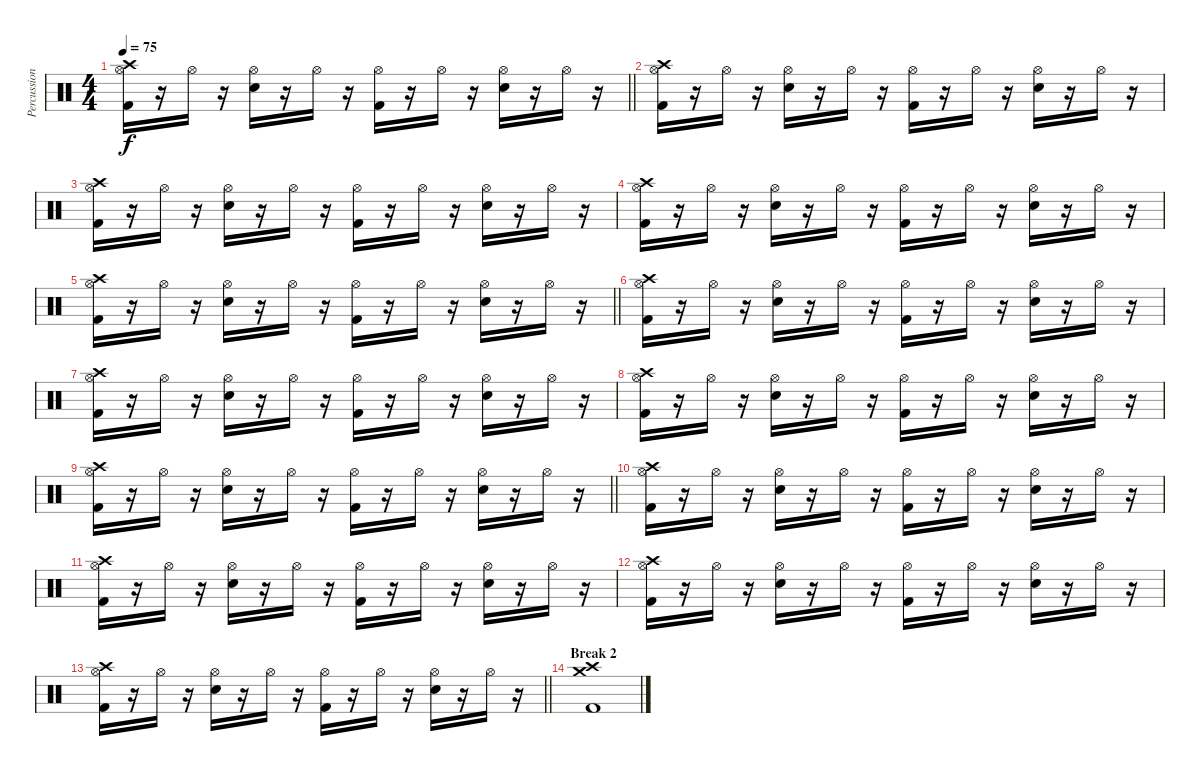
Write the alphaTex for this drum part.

\track ("Percussion" "Percussion") {instrument percussion}
\staff {score}
\articulation defaults
\ts (4 4)
\tempo 75
\clef neutral
\barLineRight lightlight
\ks c
("Crash high (hit)" "Hi-Hat (open)" "Kick (hit) 2").16{dy f} r.16 "Hi-Hat (open)".16 r.16 ("Hi-Hat (open)" "Electric Snare (hit)").16 r.16 "Hi-Hat (open)".16 r.16 ("Hi-Hat (open)" "Kick (hit) 2").16 r.16 "Hi-Hat (open)".16 r.16 ("Hi-Hat (open)" "Electric Snare (hit)").16 r.16 "Hi-Hat (open)".16 r.16 |
\section ("" "")
("Crash high (hit)" "Hi-Hat (open)" "Kick (hit) 2").16 r.16 "Hi-Hat (open)".16 r.16 ("Hi-Hat (open)" "Electric Snare (hit)").16 r.16 "Hi-Hat (open)".16 r.16 ("Hi-Hat (open)" "Kick (hit) 2").16 r.16 "Hi-Hat (open)".16 r.16 ("Hi-Hat (open)" "Electric Snare (hit)").16 r.16 "Hi-Hat (open)".16 r.16 |
("Crash high (hit)" "Hi-Hat (open)" "Kick (hit) 2").16 r.16 "Hi-Hat (open)".16 r.16 ("Hi-Hat (open)" "Electric Snare (hit)").16 r.16 "Hi-Hat (open)".16 r.16 ("Hi-Hat (open)" "Kick (hit) 2").16 r.16 "Hi-Hat (open)".16 r.16 ("Hi-Hat (open)" "Electric Snare (hit)").16 r.16 "Hi-Hat (open)".16 r.16 |
("Crash high (hit)" "Hi-Hat (open)" "Kick (hit) 2").16 r.16 "Hi-Hat (open)".16 r.16 ("Hi-Hat (open)" "Electric Snare (hit)").16 r.16 "Hi-Hat (open)".16 r.16 ("Hi-Hat (open)" "Kick (hit) 2").16 r.16 "Hi-Hat (open)".16 r.16 ("Hi-Hat (open)" "Electric Snare (hit)").16 r.16 "Hi-Hat (open)".16 r.16 |
\barLineRight lightlight
("Crash high (hit)" "Hi-Hat (open)" "Kick (hit) 2").16 r.16 "Hi-Hat (open)".16 r.16 ("Hi-Hat (open)" "Electric Snare (hit)").16 r.16 "Hi-Hat (open)".16 r.16 ("Hi-Hat (open)" "Kick (hit) 2").16 r.16 "Hi-Hat (open)".16 r.16 ("Hi-Hat (open)" "Electric Snare (hit)").16 r.16 "Hi-Hat (open)".16 r.16 |
\section ("" "")
("Crash high (hit)" "Hi-Hat (open)" "Kick (hit) 2").16 r.16 "Hi-Hat (open)".16 r.16 ("Hi-Hat (open)" "Electric Snare (hit)").16 r.16 "Hi-Hat (open)".16 r.16 ("Hi-Hat (open)" "Kick (hit) 2").16 r.16 "Hi-Hat (open)".16 r.16 ("Hi-Hat (open)" "Electric Snare (hit)").16 r.16 "Hi-Hat (open)".16 r.16 |
("Crash high (hit)" "Hi-Hat (open)" "Kick (hit) 2").16 r.16 "Hi-Hat (open)".16 r.16 ("Hi-Hat (open)" "Electric Snare (hit)").16 r.16 "Hi-Hat (open)".16 r.16 ("Hi-Hat (open)" "Kick (hit) 2").16 r.16 "Hi-Hat (open)".16 r.16 ("Hi-Hat (open)" "Electric Snare (hit)").16 r.16 "Hi-Hat (open)".16 r.16 |
("Crash high (hit)" "Hi-Hat (open)" "Kick (hit) 2").16 r.16 "Hi-Hat (open)".16 r.16 ("Hi-Hat (open)" "Electric Snare (hit)").16 r.16 "Hi-Hat (open)".16 r.16 ("Hi-Hat (open)" "Kick (hit) 2").16 r.16 "Hi-Hat (open)".16 r.16 ("Hi-Hat (open)" "Electric Snare (hit)").16 r.16 "Hi-Hat (open)".16 r.16 |
\barLineRight lightlight
("Crash high (hit)" "Hi-Hat (open)" "Kick (hit) 2").16 r.16 "Hi-Hat (open)".16 r.16 ("Hi-Hat (open)" "Electric Snare (hit)").16 r.16 "Hi-Hat (open)".16 r.16 ("Hi-Hat (open)" "Kick (hit) 2").16 r.16 "Hi-Hat (open)".16 r.16 ("Hi-Hat (open)" "Electric Snare (hit)").16 r.16 "Hi-Hat (open)".16 r.16 |
("Crash high (hit)" "Hi-Hat (open)" "Kick (hit) 2").16 r.16 "Hi-Hat (open)".16 r.16 ("Hi-Hat (open)" "Electric Snare (hit)").16 r.16 "Hi-Hat (open)".16 r.16 ("Hi-Hat (open)" "Kick (hit) 2").16 r.16 "Hi-Hat (open)".16 r.16 ("Hi-Hat (open)" "Electric Snare (hit)").16 r.16 "Hi-Hat (open)".16 r.16 |
("Crash high (hit)" "Hi-Hat (open)" "Kick (hit) 2").16 r.16 "Hi-Hat (open)".16 r.16 ("Hi-Hat (open)" "Electric Snare (hit)").16 r.16 "Hi-Hat (open)".16 r.16 ("Hi-Hat (open)" "Kick (hit) 2").16 r.16 "Hi-Hat (open)".16 r.16 ("Hi-Hat (open)" "Electric Snare (hit)").16 r.16 "Hi-Hat (open)".16 r.16 |
("Crash high (hit)" "Hi-Hat (open)" "Kick (hit) 2").16 r.16 "Hi-Hat (open)".16 r.16 ("Hi-Hat (open)" "Electric Snare (hit)").16 r.16 "Hi-Hat (open)".16 r.16 ("Hi-Hat (open)" "Kick (hit) 2").16 r.16 "Hi-Hat (open)".16 r.16 ("Hi-Hat (open)" "Electric Snare (hit)").16 r.16 "Hi-Hat (open)".16 r.16 |
\barLineRight lightlight
("Crash high (hit)" "Hi-Hat (open)" "Kick (hit) 2").16 r.16 "Hi-Hat (open)".16 r.16 ("Hi-Hat (open)" "Electric Snare (hit)").16 r.16 "Hi-Hat (open)".16 r.16 ("Hi-Hat (open)" "Kick (hit) 2").16 r.16 "Hi-Hat (open)".16 r.16 ("Hi-Hat (open)" "Electric Snare (hit)").16 r.16 "Hi-Hat (open)".16 r.16 |
\section ("" "Break 2")
("Crash medium (hit)" "Crash high (hit)" "Kick (hit) 2").1
